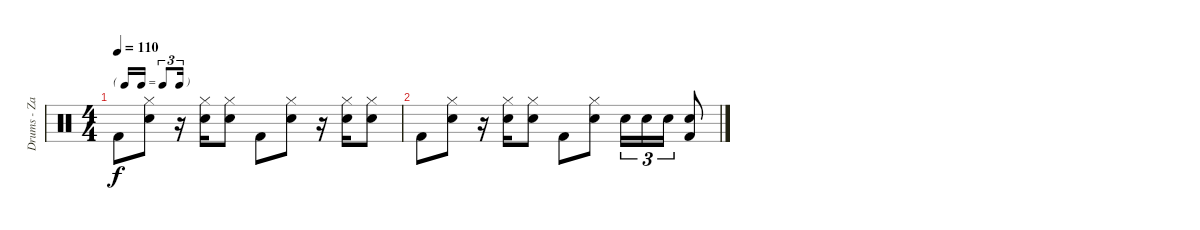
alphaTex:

\track ("Drums - Zac" "Drums - Za") {instrument percussion}
\staff {score}
\articulation defaults
\ts (4 4)
\tf triplet16th
\tempo 110
\clef neutral
\ks c "Kick (hit) 2".8{dy f}
("Hi-Hat (closed)" "Snare (hit) 2").8 r.16 ("Hi-Hat (closed)" "Snare (hit) 2").16 ("Hi-Hat (closed)" "Snare (hit) 2").8 "Kick (hit) 2".8 ("Hi-Hat (closed)" "Snare (hit) 2").8 r.16 ("Hi-Hat (closed)" "Snare (hit) 2").16 ("Hi-Hat (closed)" "Snare (hit) 2").8 |
"Kick (hit) 2".8 ("Hi-Hat (closed)" "Snare (hit) 2").8 r.16 ("Hi-Hat (closed)" "Snare (hit) 2").16 ("Hi-Hat (closed)" "Snare (hit) 2").8 "Kick (hit) 2".8 ("Hi-Hat (closed)" "Snare (hit) 2").8 "Snare (hit) 2".16{tu (3 2)} "Snare (hit) 2".16{tu (3 2)} "Snare (hit) 2".16{tu (3 2)} ("Snare (hit) 2" "Kick (hit) 2").8
